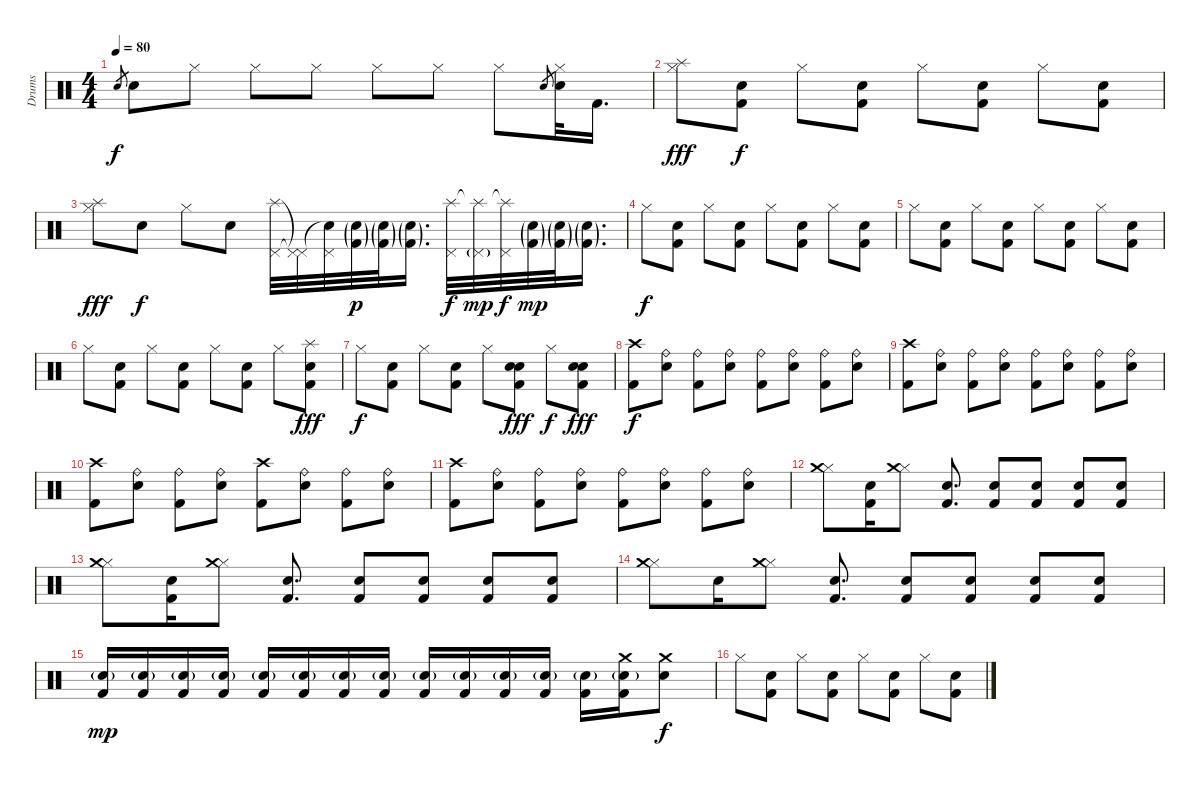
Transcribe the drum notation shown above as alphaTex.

\track ("Drums" "Drums") {instrument percussion}
\staff {score}
\articulation defaults
\ts (4 4)
\tempo 80
\clef neutral
\ks c "Electric Snare (hit)".8{gr dy f} "Electric Snare (hit)".8 "Hi-Hat (closed)".8 "Hi-Hat (closed)".8 "Hi-Hat (closed)".8 "Hi-Hat (closed)".8 "Hi-Hat (closed)".8 "Hi-Hat (closed)".8 "Electric Snare (hit)".8{gr}
("Hi-Hat (closed)" "Electric Snare (hit)").32 "Kick (hit) 2".16{d} |
("Hi-Hat (closed)" "Splash (hit)").8{dy fff} ("Electric Snare (hit)" "Kick (hit) 2").8{dy f} "Hi-Hat (closed)".8 ("Electric Snare (hit)" "Kick (hit) 2").8 "Hi-Hat (closed)".8 ("Electric Snare (hit)" "Kick (hit) 2").8 "Hi-Hat (closed)".8 ("Electric Snare (hit)" "Kick (hit) 2").8 |
("Hi-Hat (closed)" "Splash (hit)").8{dy fff} "Electric Snare (hit)".8{dy f} "Hi-Hat (closed)".8 "Electric Snare (hit)".8 ("Splash (hit)" "Pedal Hi-Hat (hit)").32 ("Pedal Hi-Hat (hit)"{t} "Pedal Hi-Hat (hit)"{t}).32 ("Snare (hit)"{t} "Pedal Hi-Hat (hit)").32 ("Electric Snare (hit)"{g} "Kick (hit) 2"{g}).32{dy p} ("Electric Snare (hit)"{g} "Kick (hit) 2"{g}).32 ("Electric Snare (hit)"{g} "Kick (hit) 2"{g}).16{d} ("Splash (hit)" "Pedal Hi-Hat (hit)").32{dy f} ("Splash (hit)"{t} "Pedal Hi-Hat (hit)"{g}).32{dy mp} ("Splash (hit)"{t} "Pedal Hi-Hat (hit)").32{dy f} ("Electric Snare (hit)"{g} "Kick (hit) 2"{g}).32{dy mp} ("Electric Snare (hit)"{g} "Kick (hit) 2"{g}).32 ("Electric Snare (hit)"{g} "Kick (hit) 2"{g}).16{d} |
"Hi-Hat (closed)".8{dy f} ("Electric Snare (hit)" "Kick (hit) 2").8 "Hi-Hat (closed)".8 ("Electric Snare (hit)" "Kick (hit) 2").8 "Hi-Hat (closed)".8 ("Electric Snare (hit)" "Kick (hit) 2").8 "Hi-Hat (closed)".8 ("Electric Snare (hit)" "Kick (hit) 2").8 |
"Hi-Hat (closed)".8 ("Electric Snare (hit)" "Kick (hit) 2").8 "Hi-Hat (closed)".8 ("Electric Snare (hit)" "Kick (hit) 2").8 "Hi-Hat (closed)".8 ("Electric Snare (hit)" "Kick (hit) 2").8 "Hi-Hat (closed)".8 ("Electric Snare (hit)" "Kick (hit) 2").8 |
"Hi-Hat (closed)".8 ("Electric Snare (hit)" "Kick (hit) 2").8 "Hi-Hat (closed)".8 ("Electric Snare (hit)" "Kick (hit) 2").8 "Hi-Hat (closed)".8 ("Electric Snare (hit)" "Kick (hit) 2").8 "Hi-Hat (closed)".8 ("Electric Snare (hit)" "Kick (hit) 2" "Splash (hit)").8{dy fff} |
"Hi-Hat (closed)".8{dy f} ("Electric Snare (hit)" "Kick (hit) 2").8 "Hi-Hat (closed)".8 ("Electric Snare (hit)" "Kick (hit) 2").8 "Hi-Hat (closed)".8 ("Electric Snare (hit)" "Kick (hit) 2" "Electric Snare (hit)").8{dy fff} "Hi-Hat (closed)".8{dy f} ("Electric Snare (hit)" "Kick (hit) 2" "Electric Snare (hit)").8{dy fff} |
("Crash high (hit)" "Kick (hit) 2").8{dy f} ("Ride (bell)" "Electric Snare (hit)").8 ("Kick (hit) 2" "Ride (bell)").8 ("Ride (bell)" "Electric Snare (hit)").8 ("Ride (bell)" "Kick (hit) 2").8 ("Ride (bell)" "Electric Snare (hit)").8 ("Kick (hit) 2" "Ride (bell)").8 ("Ride (bell)" "Electric Snare (hit)").8 |
("Crash high (hit)" "Kick (hit) 2").8 ("Ride (bell)" "Electric Snare (hit)").8 ("Kick (hit) 2" "Ride (bell)").8 ("Ride (bell)" "Electric Snare (hit)").8 ("Ride (bell)" "Kick (hit) 2").8 ("Ride (bell)" "Electric Snare (hit)").8 ("Kick (hit) 2" "Ride (bell)").8 ("Ride (bell)" "Electric Snare (hit)").8 |
("Crash high (hit)" "Kick (hit) 2").8 ("Ride (bell)" "Electric Snare (hit)").8 ("Kick (hit) 2" "Ride (bell)").8 ("Ride (bell)" "Electric Snare (hit)").8 ("Crash high (hit)" "Kick (hit) 2").8 ("Ride (bell)" "Electric Snare (hit)").8 ("Kick (hit) 2" "Ride (bell)").8 ("Ride (bell)" "Electric Snare (hit)").8 |
("Crash high (hit)" "Kick (hit) 2").8 ("Ride (bell)" "Electric Snare (hit)").8 ("Kick (hit) 2" "Ride (bell)").8 ("Ride (bell)" "Electric Snare (hit)").8 ("Ride (bell)" "Kick (hit) 2").8 ("Ride (bell)" "Electric Snare (hit)").8 ("Kick (hit) 2" "Ride (bell)").8 ("Ride (bell)" "Electric Snare (hit)").8 |
("Hi-Hat (closed)" "Crash medium (hit)").8 ("Electric Snare (hit)" "Kick (hit) 2").16 ("Hi-Hat (closed)" "Crash medium (hit)").8 ("Electric Snare (hit)" "Kick (hit) 2").8{d} ("Electric Snare (hit)" "Kick (hit) 2").8 ("Electric Snare (hit)" "Kick (hit) 2").8 ("Electric Snare (hit)" "Kick (hit) 2").8 ("Electric Snare (hit)" "Kick (hit) 2").8 |
("Hi-Hat (closed)" "Crash medium (hit)").8 ("Electric Snare (hit)" "Kick (hit) 2").16 ("Hi-Hat (closed)" "Crash medium (hit)").8 ("Electric Snare (hit)" "Kick (hit) 2").8{d} ("Electric Snare (hit)" "Kick (hit) 2").8 ("Electric Snare (hit)" "Kick (hit) 2").8 ("Electric Snare (hit)" "Kick (hit) 2").8 ("Electric Snare (hit)" "Kick (hit) 2").8 |
("Hi-Hat (closed)" "Crash medium (hit)").8 "Electric Snare (hit)".16 ("Hi-Hat (closed)" "Crash medium (hit)").8 ("Electric Snare (hit)" "Kick (hit) 2").8{d} ("Electric Snare (hit)" "Kick (hit) 2").8 ("Electric Snare (hit)" "Kick (hit) 2").8 ("Electric Snare (hit)" "Kick (hit) 2").8 ("Electric Snare (hit)" "Kick (hit) 2").8 |
("Kick (hit) 2" "Electric Snare (hit)"{g}).16{dy mp} ("Kick (hit) 2" "Electric Snare (hit)"{g}).16 ("Kick (hit) 2" "Electric Snare (hit)"{g}).16 ("Kick (hit) 2" "Electric Snare (hit)"{g}).16 ("Kick (hit) 2" "Electric Snare (hit)"{g}).16 ("Kick (hit) 2" "Electric Snare (hit)"{g}).16 ("Kick (hit) 2" "Electric Snare (hit)"{g}).16 ("Kick (hit) 2" "Electric Snare (hit)"{g}).16 ("Kick (hit) 2" "Electric Snare (hit)"{g}).16 ("Kick (hit) 2" "Electric Snare (hit)"{g}).16 ("Kick (hit) 2" "Electric Snare (hit)"{g}).16 ("Kick (hit) 2" "Electric Snare (hit)"{g}).16 ("Kick (hit) 2" "Electric Snare (hit)"{g}).16 ("Kick (hit) 2" "Electric Snare (hit)"{g} "Crash medium (hit)").16 ("Crash medium (hit)" "Electric Snare (hit)").8{dy f} |
"Hi-Hat (closed)".8 ("Electric Snare (hit)" "Kick (hit) 2").8 "Hi-Hat (closed)".8 ("Electric Snare (hit)" "Kick (hit) 2").8 "Hi-Hat (closed)".8 ("Electric Snare (hit)" "Kick (hit) 2").8 "Hi-Hat (closed)".8 ("Electric Snare (hit)" "Kick (hit) 2").8
